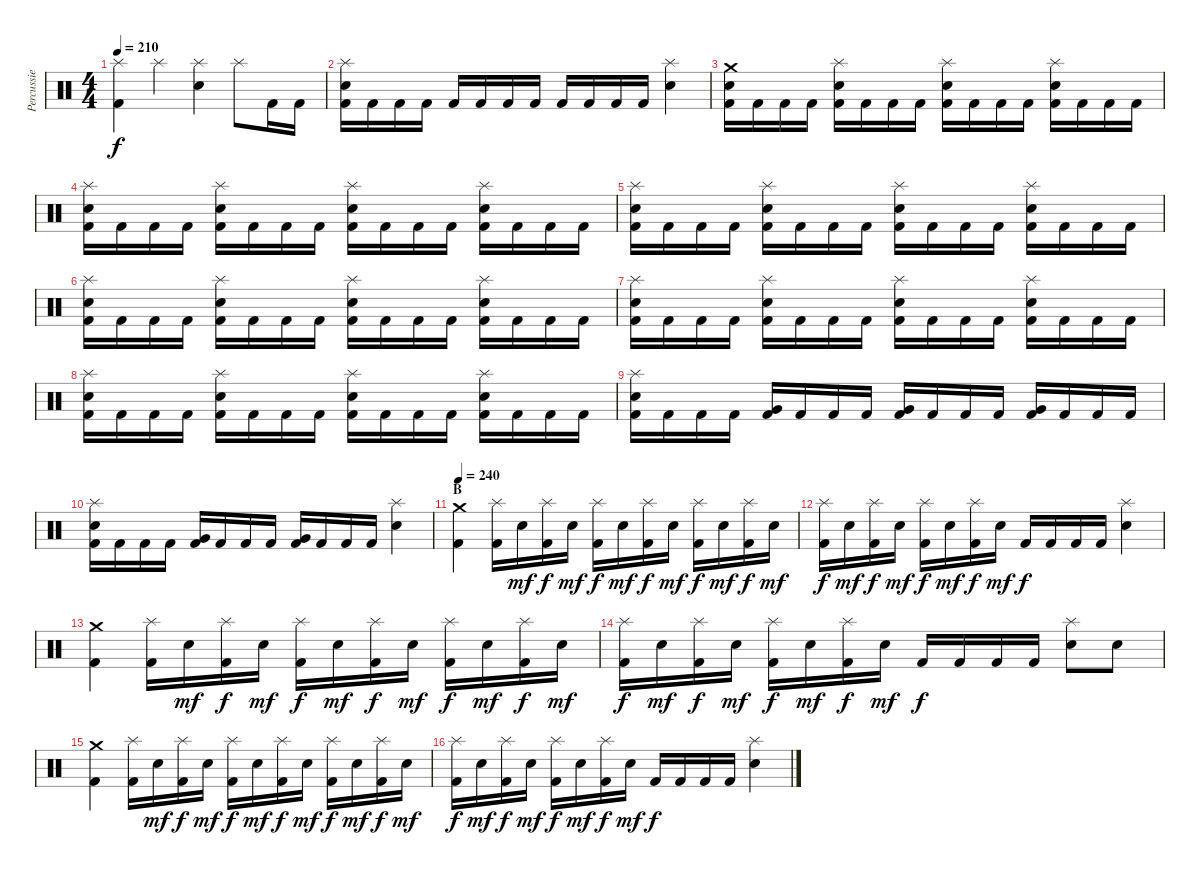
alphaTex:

\track ("Percussie" "Percussie") {instrument percussion}
\staff {score}
\articulation defaults
\ts (4 4)
\tempo 210
\clef neutral
\ks c
("Splash (hit)" "Kick (hit) 2").4{dy f} "Splash (hit)".4 ("Splash (hit)" "Electric Snare (hit)").4 "Splash (hit)".8 "Kick (hit) 2".16 "Kick (hit) 2".16 |
("Splash (hit)" "Electric Snare (hit)" "Kick (hit) 2").16 "Kick (hit) 2".16 "Kick (hit) 2".16 "Kick (hit) 2".16 "Kick (hit) 2".16 "Kick (hit) 2".16 "Kick (hit) 2".16 "Kick (hit) 2".16 "Kick (hit) 2".16 "Kick (hit) 2".16 "Kick (hit) 2".16 "Kick (hit) 2".16 ("Splash (hit)" "Electric Snare (hit)").4 |
("Crash medium (hit)" "Electric Snare (hit)" "Kick (hit) 2").16 "Kick (hit) 2".16 "Kick (hit) 2".16 "Kick (hit) 2".16 ("Splash (hit)" "Electric Snare (hit)" "Kick (hit) 2").16 "Kick (hit) 2".16 "Kick (hit) 2".16 "Kick (hit) 2".16 ("Splash (hit)" "Electric Snare (hit)" "Kick (hit) 2").16 "Kick (hit) 2".16 "Kick (hit) 2".16 "Kick (hit) 2".16 ("Splash (hit)" "Electric Snare (hit)" "Kick (hit) 2").16 "Kick (hit) 2".16 "Kick (hit) 2".16 "Kick (hit) 2".16 |
("Splash (hit)" "Electric Snare (hit)" "Kick (hit) 2").16 "Kick (hit) 2".16 "Kick (hit) 2".16 "Kick (hit) 2".16 ("Splash (hit)" "Electric Snare (hit)" "Kick (hit) 2").16 "Kick (hit) 2".16 "Kick (hit) 2".16 "Kick (hit) 2".16 ("Splash (hit)" "Electric Snare (hit)" "Kick (hit) 2").16 "Kick (hit) 2".16 "Kick (hit) 2".16 "Kick (hit) 2".16 ("Splash (hit)" "Electric Snare (hit)" "Kick (hit) 2").16 "Kick (hit) 2".16 "Kick (hit) 2".16 "Kick (hit) 2".16 |
("Splash (hit)" "Electric Snare (hit)" "Kick (hit) 2").16 "Kick (hit) 2".16 "Kick (hit) 2".16 "Kick (hit) 2".16 ("Splash (hit)" "Electric Snare (hit)" "Kick (hit) 2").16 "Kick (hit) 2".16 "Kick (hit) 2".16 "Kick (hit) 2".16 ("Splash (hit)" "Electric Snare (hit)" "Kick (hit) 2").16 "Kick (hit) 2".16 "Kick (hit) 2".16 "Kick (hit) 2".16 ("Splash (hit)" "Electric Snare (hit)" "Kick (hit) 2").16 "Kick (hit) 2".16 "Kick (hit) 2".16 "Kick (hit) 2".16 |
("Splash (hit)" "Electric Snare (hit)" "Kick (hit) 2").16 "Kick (hit) 2".16 "Kick (hit) 2".16 "Kick (hit) 2".16 ("Splash (hit)" "Electric Snare (hit)" "Kick (hit) 2").16 "Kick (hit) 2".16 "Kick (hit) 2".16 "Kick (hit) 2".16 ("Splash (hit)" "Electric Snare (hit)" "Kick (hit) 2").16 "Kick (hit) 2".16 "Kick (hit) 2".16 "Kick (hit) 2".16 ("Splash (hit)" "Electric Snare (hit)" "Kick (hit) 2").16 "Kick (hit) 2".16 "Kick (hit) 2".16 "Kick (hit) 2".16 |
("Splash (hit)" "Electric Snare (hit)" "Kick (hit) 2").16 "Kick (hit) 2".16 "Kick (hit) 2".16 "Kick (hit) 2".16 ("Splash (hit)" "Electric Snare (hit)" "Kick (hit) 2").16 "Kick (hit) 2".16 "Kick (hit) 2".16 "Kick (hit) 2".16 ("Splash (hit)" "Electric Snare (hit)" "Kick (hit) 2").16 "Kick (hit) 2".16 "Kick (hit) 2".16 "Kick (hit) 2".16 ("Splash (hit)" "Electric Snare (hit)" "Kick (hit) 2").16 "Kick (hit) 2".16 "Kick (hit) 2".16 "Kick (hit) 2".16 |
("Splash (hit)" "Electric Snare (hit)" "Kick (hit) 2").16 "Kick (hit) 2".16 "Kick (hit) 2".16 "Kick (hit) 2".16 ("Splash (hit)" "Electric Snare (hit)" "Kick (hit) 2").16 "Kick (hit) 2".16 "Kick (hit) 2".16 "Kick (hit) 2".16 ("Splash (hit)" "Electric Snare (hit)" "Kick (hit) 2").16 "Kick (hit) 2".16 "Kick (hit) 2".16 "Kick (hit) 2".16 ("Splash (hit)" "Electric Snare (hit)" "Kick (hit) 2").16 "Kick (hit) 2".16 "Kick (hit) 2".16 "Kick (hit) 2".16 |
("Splash (hit)" "Electric Snare (hit)" "Kick (hit) 2").16 "Kick (hit) 2".16 "Kick (hit) 2".16 "Kick (hit) 2".16 ("Very Low Tom (hit)" "Kick (hit) 2").16 "Kick (hit) 2".16 "Kick (hit) 2".16 "Kick (hit) 2".16 ("Very Low Tom (hit)" "Kick (hit) 2").16 "Kick (hit) 2".16 "Kick (hit) 2".16 "Kick (hit) 2".16 ("Very Low Tom (hit)" "Kick (hit) 2").16 "Kick (hit) 2".16 "Kick (hit) 2".16 "Kick (hit) 2".16 |
("Splash (hit)" "Electric Snare (hit)" "Kick (hit) 2").16 "Kick (hit) 2".16 "Kick (hit) 2".16 "Kick (hit) 2".16 ("Very Low Tom (hit)" "Kick (hit) 2").16 "Kick (hit) 2".16 "Kick (hit) 2".16 "Kick (hit) 2".16 ("Very Low Tom (hit)" "Kick (hit) 2").16 "Kick (hit) 2".16 "Kick (hit) 2".16 "Kick (hit) 2".16 ("Splash (hit)" "Electric Snare (hit)").4 |
\section ("" "B")
\tempo 240
("Crash medium (hit)" "Kick (hit) 2").4 ("Splash (hit)" "Kick (hit) 2").16 "Electric Snare (hit)".16{dy mf} ("Splash (hit)" "Kick (hit) 2").16{dy f} "Electric Snare (hit)".16{dy mf} ("Splash (hit)" "Kick (hit) 2").16{dy f} "Electric Snare (hit)".16{dy mf} ("Splash (hit)" "Kick (hit) 2").16{dy f} "Electric Snare (hit)".16{dy mf} ("Splash (hit)" "Kick (hit) 2").16{dy f} "Electric Snare (hit)".16{dy mf} ("Splash (hit)" "Kick (hit) 2").16{dy f} "Electric Snare (hit)".16{dy mf} |
("Splash (hit)" "Kick (hit) 2").16{dy f} "Electric Snare (hit)".16{dy mf} ("Splash (hit)" "Kick (hit) 2").16{dy f} "Electric Snare (hit)".16{dy mf} ("Splash (hit)" "Kick (hit) 2").16{dy f} "Electric Snare (hit)".16{dy mf} ("Splash (hit)" "Kick (hit) 2").16{dy f} "Electric Snare (hit)".16{dy mf} "Kick (hit) 2".16{dy f} "Kick (hit) 2".16 "Kick (hit) 2".16 "Kick (hit) 2".16 ("Splash (hit)" "Electric Snare (hit)").4 |
("Crash medium (hit)" "Kick (hit) 2").4 ("Splash (hit)" "Kick (hit) 2").16 "Electric Snare (hit)".16{dy mf} ("Splash (hit)" "Kick (hit) 2").16{dy f} "Electric Snare (hit)".16{dy mf} ("Splash (hit)" "Kick (hit) 2").16{dy f} "Electric Snare (hit)".16{dy mf} ("Splash (hit)" "Kick (hit) 2").16{dy f} "Electric Snare (hit)".16{dy mf} ("Splash (hit)" "Kick (hit) 2").16{dy f} "Electric Snare (hit)".16{dy mf} ("Splash (hit)" "Kick (hit) 2").16{dy f} "Electric Snare (hit)".16{dy mf} |
("Splash (hit)" "Kick (hit) 2").16{dy f} "Electric Snare (hit)".16{dy mf} ("Splash (hit)" "Kick (hit) 2").16{dy f} "Electric Snare (hit)".16{dy mf} ("Splash (hit)" "Kick (hit) 2").16{dy f} "Electric Snare (hit)".16{dy mf} ("Splash (hit)" "Kick (hit) 2").16{dy f} "Electric Snare (hit)".16{dy mf} "Kick (hit) 2".16{dy f} "Kick (hit) 2".16 "Kick (hit) 2".16 "Kick (hit) 2".16 ("Splash (hit)" "Electric Snare (hit)").8 "Electric Snare (hit)".8 |
("Crash medium (hit)" "Kick (hit) 2").4 ("Splash (hit)" "Kick (hit) 2").16 "Electric Snare (hit)".16{dy mf} ("Splash (hit)" "Kick (hit) 2").16{dy f} "Electric Snare (hit)".16{dy mf} ("Splash (hit)" "Kick (hit) 2").16{dy f} "Electric Snare (hit)".16{dy mf} ("Splash (hit)" "Kick (hit) 2").16{dy f} "Electric Snare (hit)".16{dy mf} ("Splash (hit)" "Kick (hit) 2").16{dy f} "Electric Snare (hit)".16{dy mf} ("Splash (hit)" "Kick (hit) 2").16{dy f} "Electric Snare (hit)".16{dy mf} |
("Splash (hit)" "Kick (hit) 2").16{dy f} "Electric Snare (hit)".16{dy mf} ("Splash (hit)" "Kick (hit) 2").16{dy f} "Electric Snare (hit)".16{dy mf} ("Splash (hit)" "Kick (hit) 2").16{dy f} "Electric Snare (hit)".16{dy mf} ("Splash (hit)" "Kick (hit) 2").16{dy f} "Electric Snare (hit)".16{dy mf} "Kick (hit) 2".16{dy f} "Kick (hit) 2".16 "Kick (hit) 2".16 "Kick (hit) 2".16 ("Splash (hit)" "Electric Snare (hit)").4
